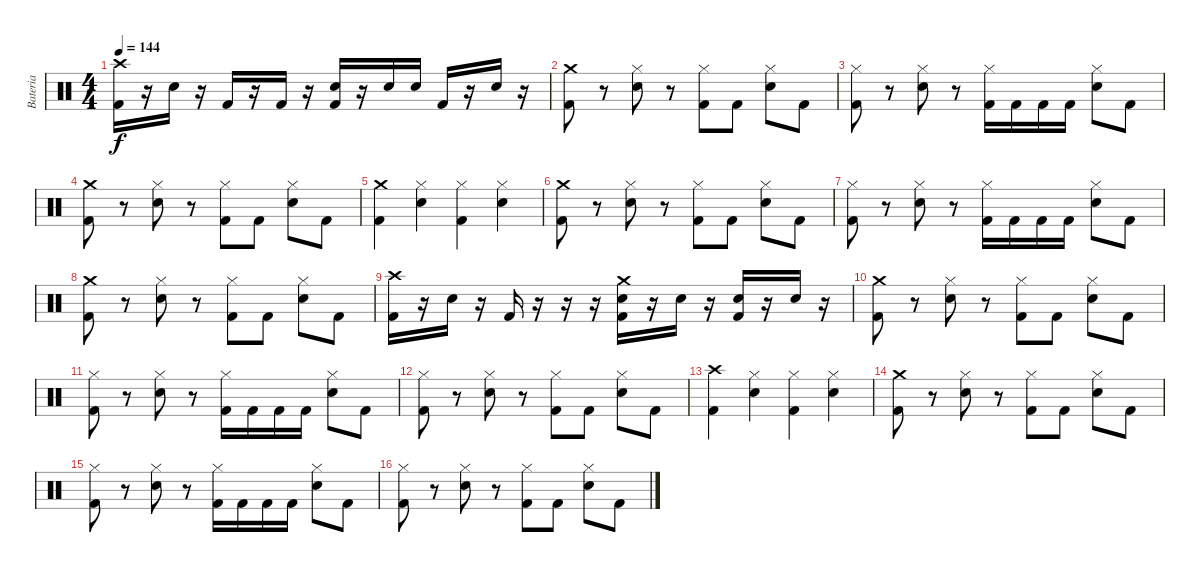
\track ("Bateria" "Bateria") {instrument percussion}
\staff {score}
\articulation defaults
\ts (4 4)
\tempo 144
\clef neutral
\ks c
("Crash high (hit)" "Kick (hit) 2").16{dy f} r.16 "Electric Snare (hit)".16 r.16 "Kick (hit) 2".16 r.16 "Kick (hit) 2".16 r.16 ("Electric Snare (hit)" "Kick (hit) 2").16 r.16 "Electric Snare (hit)".16 "Electric Snare (hit)".16 "Kick (hit) 2".16 r.16 "Electric Snare (hit)".16 r.16 |
("Crash medium (hit)" "Kick (hit) 2").8 r.8 ("Hi-Hat (closed)" "Electric Snare (hit)").8 r.8 ("Hi-Hat (closed)" "Kick (hit) 2").8 "Kick (hit) 2".8 ("Hi-Hat (closed)" "Electric Snare (hit)").8 "Kick (hit) 2".8 |
("Hi-Hat (closed)" "Kick (hit) 2").8 r.8 ("Hi-Hat (closed)" "Electric Snare (hit)").8 r.8 ("Hi-Hat (closed)" "Kick (hit) 2").16 "Kick (hit) 2".16 "Kick (hit) 2".16 "Kick (hit) 2".16 ("Hi-Hat (closed)" "Electric Snare (hit)").8 "Kick (hit) 2".8 |
("Crash medium (hit)" "Kick (hit) 2").8 r.8 ("Hi-Hat (closed)" "Electric Snare (hit)").8 r.8 ("Hi-Hat (closed)" "Kick (hit) 2").8 "Kick (hit) 2".8 ("Hi-Hat (closed)" "Electric Snare (hit)").8 "Kick (hit) 2".8 |
("Crash medium (hit)" "Kick (hit) 2").4 ("Hi-Hat (closed)" "Electric Snare (hit)").4 ("Hi-Hat (closed)" "Kick (hit) 2").4 ("Hi-Hat (closed)" "Electric Snare (hit)").4 |
("Crash medium (hit)" "Kick (hit) 2").8 r.8 ("Hi-Hat (closed)" "Electric Snare (hit)").8 r.8 ("Hi-Hat (closed)" "Kick (hit) 2").8 "Kick (hit) 2".8 ("Hi-Hat (closed)" "Electric Snare (hit)").8 "Kick (hit) 2".8 |
("Hi-Hat (closed)" "Kick (hit) 2").8 r.8 ("Hi-Hat (closed)" "Electric Snare (hit)").8 r.8 ("Hi-Hat (closed)" "Kick (hit) 2").16 "Kick (hit) 2".16 "Kick (hit) 2".16 "Kick (hit) 2".16 ("Hi-Hat (closed)" "Electric Snare (hit)").8 "Kick (hit) 2".8 |
("Crash medium (hit)" "Kick (hit) 2").8 r.8 ("Hi-Hat (closed)" "Electric Snare (hit)").8 r.8 ("Hi-Hat (closed)" "Kick (hit) 2").8 "Kick (hit) 2".8 ("Hi-Hat (closed)" "Electric Snare (hit)").8 "Kick (hit) 2".8 |
("Crash high (hit)" "Kick (hit) 2").16 r.16 "Electric Snare (hit)".16 r.16 "Kick (hit) 2".16 r.16 r.16 r.16 ("Crash medium (hit)" "Electric Snare (hit)" "Kick (hit) 2").16 r.16 "Electric Snare (hit)".16 r.16 ("Electric Snare (hit)" "Kick (hit) 2").16 r.16 "Electric Snare (hit)".16 r.16 |
("Crash medium (hit)" "Kick (hit) 2").8 r.8 ("Hi-Hat (closed)" "Electric Snare (hit)").8 r.8 ("Hi-Hat (closed)" "Kick (hit) 2").8 "Kick (hit) 2".8 ("Hi-Hat (closed)" "Electric Snare (hit)").8 "Kick (hit) 2".8 |
("Hi-Hat (closed)" "Kick (hit) 2").8 r.8 ("Hi-Hat (closed)" "Electric Snare (hit)").8 r.8 ("Hi-Hat (closed)" "Kick (hit) 2").16 "Kick (hit) 2".16 "Kick (hit) 2".16 "Kick (hit) 2".16 ("Hi-Hat (closed)" "Electric Snare (hit)").8 "Kick (hit) 2".8 |
("Hi-Hat (closed)" "Kick (hit) 2").8 r.8 ("Hi-Hat (closed)" "Electric Snare (hit)").8 r.8 ("Hi-Hat (closed)" "Kick (hit) 2").8 "Kick (hit) 2".8 ("Hi-Hat (closed)" "Electric Snare (hit)").8 "Kick (hit) 2".8 |
("Crash high (hit)" "Kick (hit) 2").4 ("Hi-Hat (closed)" "Electric Snare (hit)").4 ("Hi-Hat (closed)" "Kick (hit) 2").4 ("Hi-Hat (closed)" "Electric Snare (hit)").4 |
("Crash medium (hit)" "Kick (hit) 2").8 r.8 ("Hi-Hat (closed)" "Electric Snare (hit)").8 r.8 ("Hi-Hat (closed)" "Kick (hit) 2").8 "Kick (hit) 2".8 ("Hi-Hat (closed)" "Electric Snare (hit)").8 "Kick (hit) 2".8 |
("Hi-Hat (closed)" "Kick (hit) 2").8 r.8 ("Hi-Hat (closed)" "Electric Snare (hit)").8 r.8 ("Hi-Hat (closed)" "Kick (hit) 2").16 "Kick (hit) 2".16 "Kick (hit) 2".16 "Kick (hit) 2".16 ("Hi-Hat (closed)" "Electric Snare (hit)").8 "Kick (hit) 2".8 |
("Hi-Hat (closed)" "Kick (hit) 2").8 r.8 ("Hi-Hat (closed)" "Electric Snare (hit)").8 r.8 ("Hi-Hat (closed)" "Kick (hit) 2").8 "Kick (hit) 2".8 ("Hi-Hat (closed)" "Electric Snare (hit)").8 "Kick (hit) 2".8
